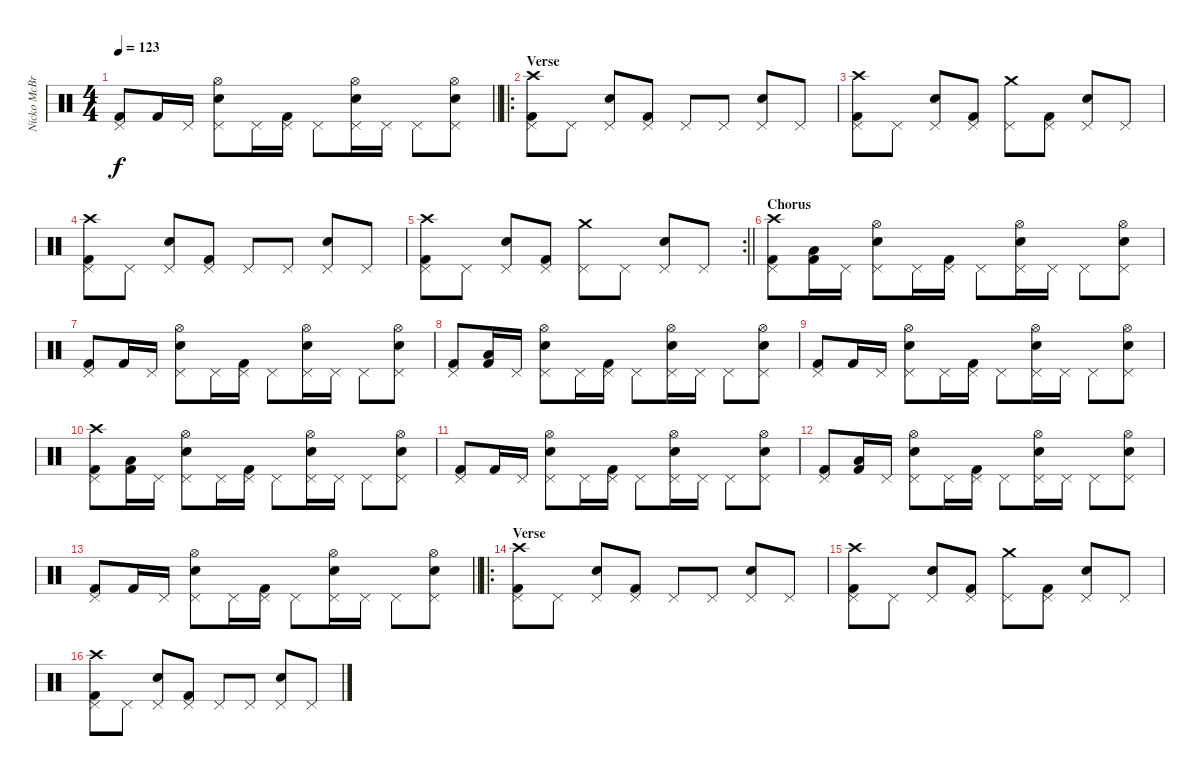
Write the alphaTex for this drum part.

\track ("Nicko McBrain" "Nicko McBr") {instrument percussion}
\staff {score}
\articulation defaults
\ts (4 4)
\tempo 123
\clef neutral
\barLineRight lightlight
\ks c
("Kick (hit) 2" "Pedal Hi-Hat (hit)").8{dy f} "Kick (hit) 2".16 "Pedal Hi-Hat (hit)".16 ("Snare (hit) 2" "Pedal Hi-Hat (hit)" "Hi-Hat (open)").8 "Pedal Hi-Hat (hit)".16 ("Kick (hit) 2" "Pedal Hi-Hat (hit)").16 "Pedal Hi-Hat (hit)".8 ("Snare (hit) 2" "Pedal Hi-Hat (hit)" "Hi-Hat (open)").16 "Pedal Hi-Hat (hit)".16 "Pedal Hi-Hat (hit)".8 ("Snare (hit) 2" "Pedal Hi-Hat (hit)" "Hi-Hat (open)").8 |
\ro
\section ("" "Verse")
("Kick (hit) 2" "Pedal Hi-Hat (hit)" "Crash high (hit)").8 "Pedal Hi-Hat (hit)".8 ("Snare (hit) 2" "Pedal Hi-Hat (hit)").8 ("Kick (hit) 2" "Pedal Hi-Hat (hit)").8 "Pedal Hi-Hat (hit)".8 "Pedal Hi-Hat (hit)".8 ("Snare (hit) 2" "Pedal Hi-Hat (hit)").8 "Pedal Hi-Hat (hit)".8 |
("Kick (hit) 2" "Pedal Hi-Hat (hit)" "Crash high (hit)").8 "Pedal Hi-Hat (hit)".8 ("Snare (hit) 2" "Pedal Hi-Hat (hit)").8 ("Kick (hit) 2" "Pedal Hi-Hat (hit)").8 ("Pedal Hi-Hat (hit)" "Crash medium (hit)").8 ("Kick (hit) 2" "Pedal Hi-Hat (hit)").8 ("Snare (hit) 2" "Pedal Hi-Hat (hit)").8 "Pedal Hi-Hat (hit)".8 |
("Kick (hit) 2" "Pedal Hi-Hat (hit)" "Crash high (hit)").8 "Pedal Hi-Hat (hit)".8 ("Snare (hit) 2" "Pedal Hi-Hat (hit)").8 ("Kick (hit) 2" "Pedal Hi-Hat (hit)").8 "Pedal Hi-Hat (hit)".8 "Pedal Hi-Hat (hit)".8 ("Snare (hit) 2" "Pedal Hi-Hat (hit)").8 "Pedal Hi-Hat (hit)".8 |
\rc 2
\barLineRight lightlight
("Kick (hit) 2" "Pedal Hi-Hat (hit)" "Crash high (hit)").8 "Pedal Hi-Hat (hit)".8 ("Snare (hit) 2" "Pedal Hi-Hat (hit)").8 ("Kick (hit) 2" "Pedal Hi-Hat (hit)").8 ("Pedal Hi-Hat (hit)" "Crash medium (hit)").8 "Pedal Hi-Hat (hit)".8 ("Snare (hit) 2" "Pedal Hi-Hat (hit)").8 "Pedal Hi-Hat (hit)".8 |
\section ("" "Chorus")
("Kick (hit) 2" "Pedal Hi-Hat (hit)" "Crash high (hit)").8 ("Kick (hit) 2" "Low Tom (hit)").16 "Pedal Hi-Hat (hit)".16 ("Snare (hit) 2" "Pedal Hi-Hat (hit)" "Hi-Hat (open)").8 "Pedal Hi-Hat (hit)".16 ("Kick (hit) 2" "Pedal Hi-Hat (hit)").16 "Pedal Hi-Hat (hit)".8 ("Snare (hit) 2" "Pedal Hi-Hat (hit)" "Hi-Hat (open)").16 "Pedal Hi-Hat (hit)".16 "Pedal Hi-Hat (hit)".8 ("Snare (hit) 2" "Pedal Hi-Hat (hit)" "Hi-Hat (open)").8 |
("Kick (hit) 2" "Pedal Hi-Hat (hit)").8 "Kick (hit) 2".16 "Pedal Hi-Hat (hit)".16 ("Snare (hit) 2" "Pedal Hi-Hat (hit)" "Hi-Hat (open)").8 "Pedal Hi-Hat (hit)".16 ("Kick (hit) 2" "Pedal Hi-Hat (hit)").16 "Pedal Hi-Hat (hit)".8 ("Snare (hit) 2" "Pedal Hi-Hat (hit)" "Hi-Hat (open)").16 "Pedal Hi-Hat (hit)".16 "Pedal Hi-Hat (hit)".8 ("Snare (hit) 2" "Pedal Hi-Hat (hit)" "Hi-Hat (open)").8 |
("Kick (hit) 2" "Pedal Hi-Hat (hit)").8 ("Kick (hit) 2" "Low Tom (hit)").16 "Pedal Hi-Hat (hit)".16 ("Snare (hit) 2" "Pedal Hi-Hat (hit)" "Hi-Hat (open)").8 "Pedal Hi-Hat (hit)".16 ("Kick (hit) 2" "Pedal Hi-Hat (hit)").16 "Pedal Hi-Hat (hit)".8 ("Snare (hit) 2" "Pedal Hi-Hat (hit)" "Hi-Hat (open)").16 "Pedal Hi-Hat (hit)".16 "Pedal Hi-Hat (hit)".8 ("Snare (hit) 2" "Pedal Hi-Hat (hit)" "Hi-Hat (open)").8 |
("Kick (hit) 2" "Pedal Hi-Hat (hit)").8 "Kick (hit) 2".16 "Pedal Hi-Hat (hit)".16 ("Snare (hit) 2" "Pedal Hi-Hat (hit)" "Hi-Hat (open)").8 "Pedal Hi-Hat (hit)".16 ("Kick (hit) 2" "Pedal Hi-Hat (hit)").16 "Pedal Hi-Hat (hit)".8 ("Snare (hit) 2" "Pedal Hi-Hat (hit)" "Hi-Hat (open)").16 "Pedal Hi-Hat (hit)".16 "Pedal Hi-Hat (hit)".8 ("Snare (hit) 2" "Pedal Hi-Hat (hit)" "Hi-Hat (open)").8 |
("Kick (hit) 2" "Pedal Hi-Hat (hit)" "Crash high (hit)").8 ("Kick (hit) 2" "Low Tom (hit)").16 "Pedal Hi-Hat (hit)".16 ("Snare (hit) 2" "Pedal Hi-Hat (hit)" "Hi-Hat (open)").8 "Pedal Hi-Hat (hit)".16 ("Kick (hit) 2" "Pedal Hi-Hat (hit)").16 "Pedal Hi-Hat (hit)".8 ("Snare (hit) 2" "Pedal Hi-Hat (hit)" "Hi-Hat (open)").16 "Pedal Hi-Hat (hit)".16 "Pedal Hi-Hat (hit)".8 ("Snare (hit) 2" "Pedal Hi-Hat (hit)" "Hi-Hat (open)").8 |
("Kick (hit) 2" "Pedal Hi-Hat (hit)").8 "Kick (hit) 2".16 "Pedal Hi-Hat (hit)".16 ("Snare (hit) 2" "Pedal Hi-Hat (hit)" "Hi-Hat (open)").8 "Pedal Hi-Hat (hit)".16 ("Kick (hit) 2" "Pedal Hi-Hat (hit)").16 "Pedal Hi-Hat (hit)".8 ("Snare (hit) 2" "Pedal Hi-Hat (hit)" "Hi-Hat (open)").16 "Pedal Hi-Hat (hit)".16 "Pedal Hi-Hat (hit)".8 ("Snare (hit) 2" "Pedal Hi-Hat (hit)" "Hi-Hat (open)").8 |
("Kick (hit) 2" "Pedal Hi-Hat (hit)").8 ("Kick (hit) 2" "Low Tom (hit)").16 "Pedal Hi-Hat (hit)".16 ("Snare (hit) 2" "Pedal Hi-Hat (hit)" "Hi-Hat (open)").8 "Pedal Hi-Hat (hit)".16 ("Kick (hit) 2" "Pedal Hi-Hat (hit)").16 "Pedal Hi-Hat (hit)".8 ("Snare (hit) 2" "Pedal Hi-Hat (hit)" "Hi-Hat (open)").16 "Pedal Hi-Hat (hit)".16 "Pedal Hi-Hat (hit)".8 ("Snare (hit) 2" "Pedal Hi-Hat (hit)" "Hi-Hat (open)").8 |
\barLineRight lightlight
("Kick (hit) 2" "Pedal Hi-Hat (hit)").8 "Kick (hit) 2".16 "Pedal Hi-Hat (hit)".16 ("Snare (hit) 2" "Pedal Hi-Hat (hit)" "Hi-Hat (open)").8 "Pedal Hi-Hat (hit)".16 ("Kick (hit) 2" "Pedal Hi-Hat (hit)").16 "Pedal Hi-Hat (hit)".8 ("Snare (hit) 2" "Pedal Hi-Hat (hit)" "Hi-Hat (open)").16 "Pedal Hi-Hat (hit)".16 "Pedal Hi-Hat (hit)".8 ("Snare (hit) 2" "Pedal Hi-Hat (hit)" "Hi-Hat (open)").8 |
\ro
\section ("" "Verse")
("Kick (hit) 2" "Pedal Hi-Hat (hit)" "Crash high (hit)").8 "Pedal Hi-Hat (hit)".8 ("Snare (hit) 2" "Pedal Hi-Hat (hit)").8 ("Kick (hit) 2" "Pedal Hi-Hat (hit)").8 "Pedal Hi-Hat (hit)".8 "Pedal Hi-Hat (hit)".8 ("Snare (hit) 2" "Pedal Hi-Hat (hit)").8 "Pedal Hi-Hat (hit)".8 |
("Kick (hit) 2" "Pedal Hi-Hat (hit)" "Crash high (hit)").8 "Pedal Hi-Hat (hit)".8 ("Snare (hit) 2" "Pedal Hi-Hat (hit)").8 ("Kick (hit) 2" "Pedal Hi-Hat (hit)").8 ("Pedal Hi-Hat (hit)" "Crash medium (hit)").8 ("Kick (hit) 2" "Pedal Hi-Hat (hit)").8 ("Snare (hit) 2" "Pedal Hi-Hat (hit)").8 "Pedal Hi-Hat (hit)".8 |
("Kick (hit) 2" "Pedal Hi-Hat (hit)" "Crash high (hit)").8 "Pedal Hi-Hat (hit)".8 ("Snare (hit) 2" "Pedal Hi-Hat (hit)").8 ("Kick (hit) 2" "Pedal Hi-Hat (hit)").8 "Pedal Hi-Hat (hit)".8 "Pedal Hi-Hat (hit)".8 ("Snare (hit) 2" "Pedal Hi-Hat (hit)").8 "Pedal Hi-Hat (hit)".8
